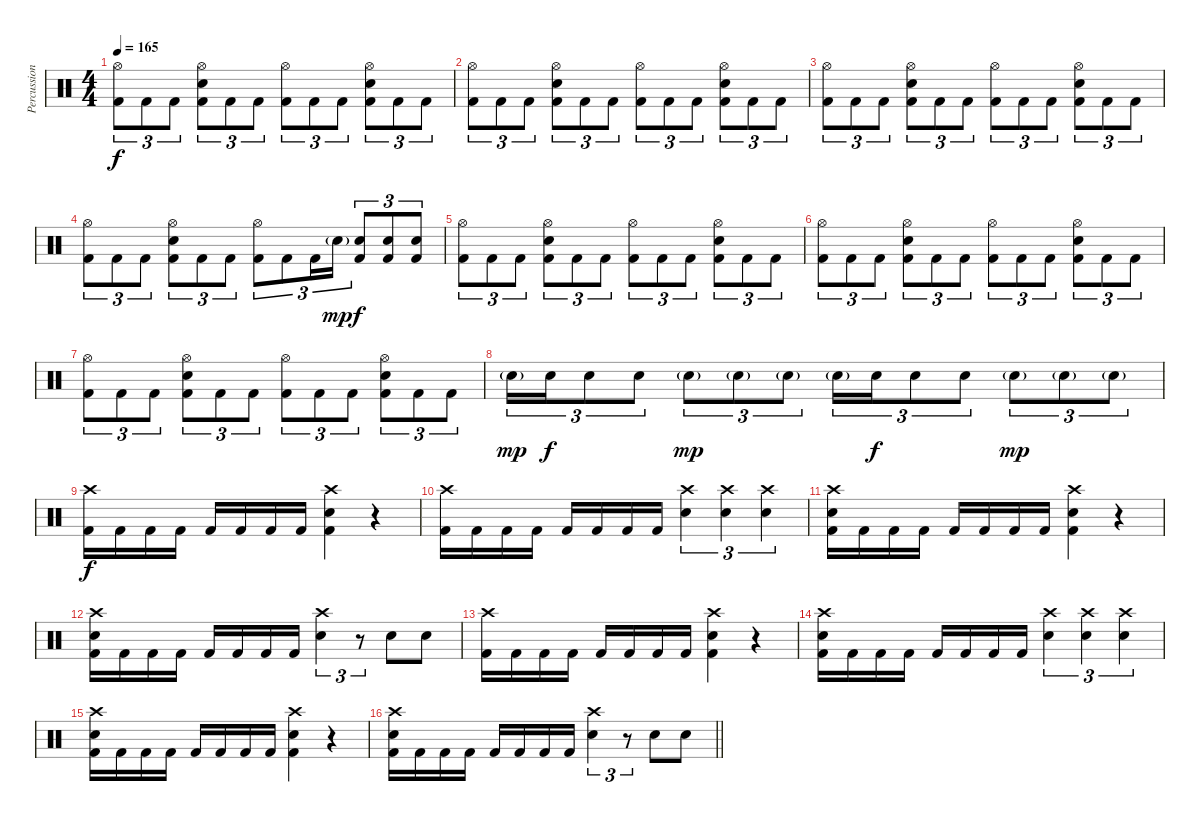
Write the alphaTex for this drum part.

\track ("Percussion" "Percussion") {instrument percussion}
\staff {score}
\articulation defaults
\ts (4 4)
\tempo 165
\clef neutral
\ks c
("Hi-Hat (open)" "Kick (hit) 2").8{tu (3 2) dy f} "Kick (hit) 2".8{tu (3 2)} "Kick (hit) 2".8{tu (3 2)} ("Hi-Hat (open)" "Snare (hit) 2" "Kick (hit) 2").8{tu (3 2)} "Kick (hit) 2".8{tu (3 2)} "Kick (hit) 2".8{tu (3 2)} ("Hi-Hat (open)" "Kick (hit) 2").8{tu (3 2)} "Kick (hit) 2".8{tu (3 2)} "Kick (hit) 2".8{tu (3 2)} ("Hi-Hat (open)" "Snare (hit) 2" "Kick (hit) 2").8{tu (3 2)} "Kick (hit) 2".8{tu (3 2)} "Kick (hit) 2".8{tu (3 2)} |
("Hi-Hat (open)" "Kick (hit) 2").8{tu (3 2)} "Kick (hit) 2".8{tu (3 2)} "Kick (hit) 2".8{tu (3 2)} ("Hi-Hat (open)" "Snare (hit) 2" "Kick (hit) 2").8{tu (3 2)} "Kick (hit) 2".8{tu (3 2)} "Kick (hit) 2".8{tu (3 2)} ("Hi-Hat (open)" "Kick (hit) 2").8{tu (3 2)} "Kick (hit) 2".8{tu (3 2)} "Kick (hit) 2".8{tu (3 2)} ("Hi-Hat (open)" "Snare (hit) 2" "Kick (hit) 2").8{tu (3 2)} "Kick (hit) 2".8{tu (3 2)} "Kick (hit) 2".8{tu (3 2)} |
("Hi-Hat (open)" "Kick (hit) 2").8{tu (3 2)} "Kick (hit) 2".8{tu (3 2)} "Kick (hit) 2".8{tu (3 2)} ("Hi-Hat (open)" "Snare (hit) 2" "Kick (hit) 2").8{tu (3 2)} "Kick (hit) 2".8{tu (3 2)} "Kick (hit) 2".8{tu (3 2)} ("Hi-Hat (open)" "Kick (hit) 2").8{tu (3 2)} "Kick (hit) 2".8{tu (3 2)} "Kick (hit) 2".8{tu (3 2)} ("Hi-Hat (open)" "Snare (hit) 2" "Kick (hit) 2").8{tu (3 2)} "Kick (hit) 2".8{tu (3 2)} "Kick (hit) 2".8{tu (3 2)} |
("Hi-Hat (open)" "Kick (hit) 2").8{tu (3 2)} "Kick (hit) 2".8{tu (3 2)} "Kick (hit) 2".8{tu (3 2)} ("Hi-Hat (open)" "Snare (hit) 2" "Kick (hit) 2").8{tu (3 2)} "Kick (hit) 2".8{tu (3 2)} "Kick (hit) 2".8{tu (3 2)} ("Hi-Hat (open)" "Kick (hit) 2").8{tu (3 2)} "Kick (hit) 2".8{tu (3 2)} "Kick (hit) 2".16{tu (3 2)} "Snare (hit) 2"{g}.16{tu (3 2) dy mp} ("Snare (hit) 2" "Kick (hit) 2").8{tu (3 2) dy f} ("Snare (hit) 2" "Kick (hit) 2").8{tu (3 2)} ("Snare (hit) 2" "Kick (hit) 2").8{tu (3 2)} |
("Hi-Hat (open)" "Kick (hit) 2").8{tu (3 2)} "Kick (hit) 2".8{tu (3 2)} "Kick (hit) 2".8{tu (3 2)} ("Hi-Hat (open)" "Snare (hit) 2" "Kick (hit) 2").8{tu (3 2)} "Kick (hit) 2".8{tu (3 2)} "Kick (hit) 2".8{tu (3 2)} ("Hi-Hat (open)" "Kick (hit) 2").8{tu (3 2)} "Kick (hit) 2".8{tu (3 2)} "Kick (hit) 2".8{tu (3 2)} ("Hi-Hat (open)" "Snare (hit) 2" "Kick (hit) 2").8{tu (3 2)} "Kick (hit) 2".8{tu (3 2)} "Kick (hit) 2".8{tu (3 2)} |
("Hi-Hat (open)" "Kick (hit) 2").8{tu (3 2)} "Kick (hit) 2".8{tu (3 2)} "Kick (hit) 2".8{tu (3 2)} ("Hi-Hat (open)" "Snare (hit) 2" "Kick (hit) 2").8{tu (3 2)} "Kick (hit) 2".8{tu (3 2)} "Kick (hit) 2".8{tu (3 2)} ("Hi-Hat (open)" "Kick (hit) 2").8{tu (3 2)} "Kick (hit) 2".8{tu (3 2)} "Kick (hit) 2".8{tu (3 2)} ("Hi-Hat (open)" "Snare (hit) 2" "Kick (hit) 2").8{tu (3 2)} "Kick (hit) 2".8{tu (3 2)} "Kick (hit) 2".8{tu (3 2)} |
("Hi-Hat (open)" "Kick (hit) 2").8{tu (3 2)} "Kick (hit) 2".8{tu (3 2)} "Kick (hit) 2".8{tu (3 2)} ("Hi-Hat (open)" "Snare (hit) 2" "Kick (hit) 2").8{tu (3 2)} "Kick (hit) 2".8{tu (3 2)} "Kick (hit) 2".8{tu (3 2)} ("Hi-Hat (open)" "Kick (hit) 2").8{tu (3 2)} "Kick (hit) 2".8{tu (3 2)} "Kick (hit) 2".8{tu (3 2)} ("Hi-Hat (open)" "Electric Snare (hit)" "Kick (hit) 2").8{tu (3 2)} "Kick (hit) 2".8{tu (3 2)} "Kick (hit) 2".8{tu (3 2)} |
"Snare (hit) 2"{g}.16{tu (3 2) dy mp} "Snare (hit) 2".16{tu (3 2) dy f} "Snare (hit) 2".8{tu (3 2)} "Snare (hit) 2".8{tu (3 2)} "Snare (hit) 2"{g}.8{tu (3 2) dy mp} "Snare (hit) 2"{g}.8{tu (3 2)} "Snare (hit) 2"{g}.8{tu (3 2)} "Snare (hit) 2"{g}.16{tu (3 2)} "Snare (hit) 2".16{tu (3 2) dy f} "Snare (hit) 2".8{tu (3 2)} "Snare (hit) 2".8{tu (3 2)} "Snare (hit) 2"{g}.8{tu (3 2) dy mp} "Snare (hit) 2"{g}.8{tu (3 2)} "Snare (hit) 2"{g}.8{tu (3 2)} |
("Crash high (hit)" "Kick (hit) 2").16{dy f} "Kick (hit) 2".16 "Kick (hit) 2".16 "Kick (hit) 2".16 "Kick (hit) 2".16 "Kick (hit) 2".16 "Kick (hit) 2".16 "Kick (hit) 2".16 ("Crash high (hit)" "Snare (hit) 2" "Kick (hit) 2").4 r.4 |
("Crash high (hit)" "Kick (hit) 2").16 "Kick (hit) 2".16 "Kick (hit) 2".16 "Kick (hit) 2".16 "Kick (hit) 2".16 "Kick (hit) 2".16 "Kick (hit) 2".16 "Kick (hit) 2".16 ("Crash high (hit)" "Snare (hit) 2").4{tu (3 2)} ("Crash high (hit)" "Snare (hit) 2").4{tu (3 2)} ("Crash high (hit)" "Snare (hit) 2").4{tu (3 2)} |
("Crash high (hit)" "Snare (hit) 2" "Kick (hit) 2").16 "Kick (hit) 2".16 "Kick (hit) 2".16 "Kick (hit) 2".16 "Kick (hit) 2".16 "Kick (hit) 2".16 "Kick (hit) 2".16 "Kick (hit) 2".16 ("Crash high (hit)" "Snare (hit) 2" "Kick (hit) 2").4 r.4 |
("Crash high (hit)" "Snare (hit) 2" "Kick (hit) 2").16 "Kick (hit) 2".16 "Kick (hit) 2".16 "Kick (hit) 2".16 "Kick (hit) 2".16 "Kick (hit) 2".16 "Kick (hit) 2".16 "Kick (hit) 2".16 ("Crash high (hit)" "Snare (hit) 2").4{tu (3 2)} r.8{tu (3 2)} "Snare (hit) 2".8 "Snare (hit) 2".8 |
("Crash high (hit)" "Kick (hit) 2").16 "Kick (hit) 2".16 "Kick (hit) 2".16 "Kick (hit) 2".16 "Kick (hit) 2".16 "Kick (hit) 2".16 "Kick (hit) 2".16 "Kick (hit) 2".16 ("Crash high (hit)" "Snare (hit) 2" "Kick (hit) 2").4 r.4 |
("Crash high (hit)" "Snare (hit) 2" "Kick (hit) 2").16 "Kick (hit) 2".16 "Kick (hit) 2".16 "Kick (hit) 2".16 "Kick (hit) 2".16 "Kick (hit) 2".16 "Kick (hit) 2".16 "Kick (hit) 2".16 ("Crash high (hit)" "Snare (hit) 2").4{tu (3 2)} ("Crash high (hit)" "Snare (hit) 2").4{tu (3 2)} ("Crash high (hit)" "Snare (hit) 2").4{tu (3 2)} |
("Crash high (hit)" "Snare (hit) 2" "Kick (hit) 2").16 "Kick (hit) 2".16 "Kick (hit) 2".16 "Kick (hit) 2".16 "Kick (hit) 2".16 "Kick (hit) 2".16 "Kick (hit) 2".16 "Kick (hit) 2".16 ("Crash high (hit)" "Snare (hit) 2" "Kick (hit) 2").4 r.4 |
\barLineRight lightlight
("Crash high (hit)" "Snare (hit) 2" "Kick (hit) 2").16 "Kick (hit) 2".16 "Kick (hit) 2".16 "Kick (hit) 2".16 "Kick (hit) 2".16 "Kick (hit) 2".16 "Kick (hit) 2".16 "Kick (hit) 2".16 ("Crash high (hit)" "Snare (hit) 2").4{tu (3 2)} r.8{tu (3 2)} "Snare (hit) 2".8 "Snare (hit) 2".8
